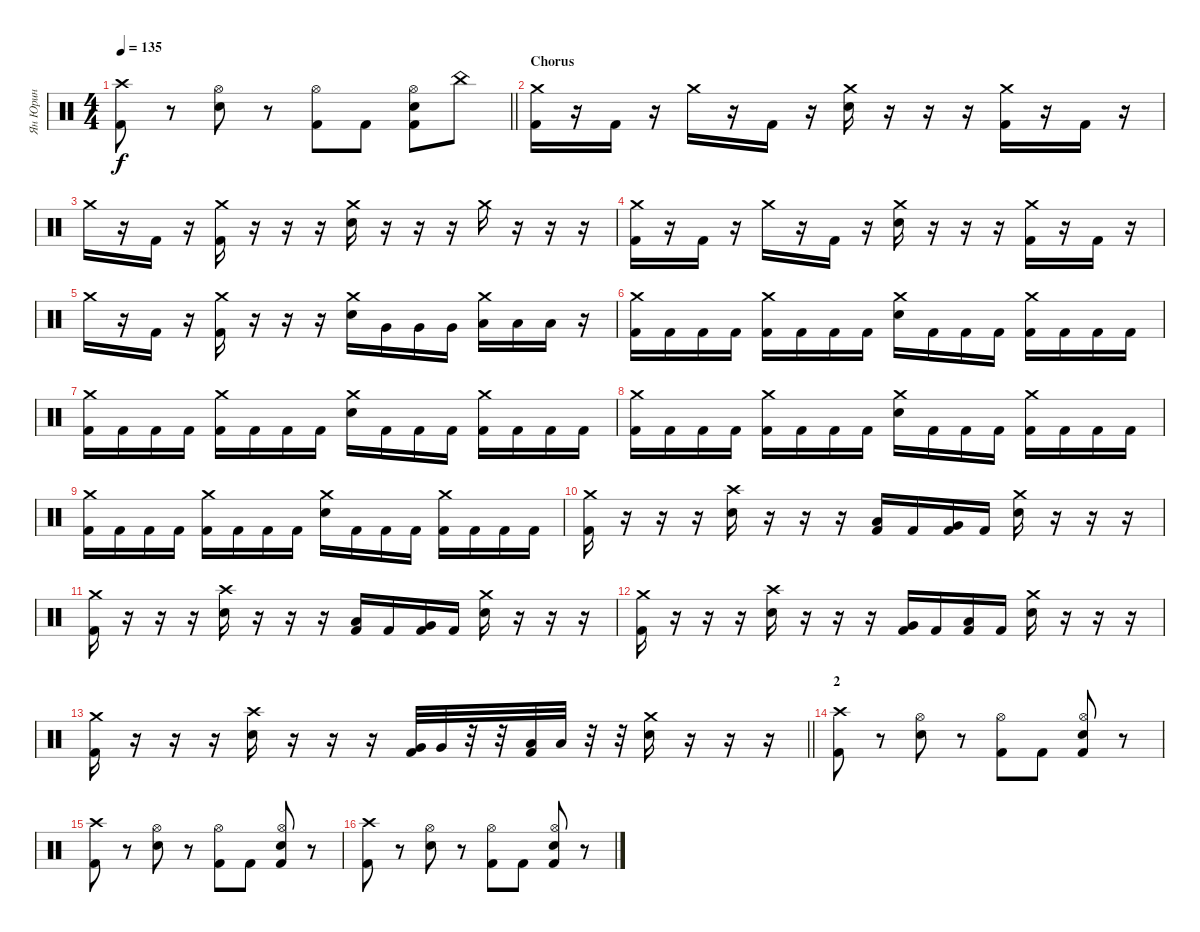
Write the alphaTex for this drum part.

\track ("Ян Юрин" "Ян Юрин") {instrument percussion}
\staff {score}
\articulation defaults
\ts (4 4)
\tempo 135
\clef neutral
\barLineRight lightlight
\ks c
("Crash high (hit)" "Kick (hit) 2").8{dy f} r.8 ("Hi-Hat (open)" "Electric Snare (hit)").8 r.8 ("Hi-Hat (open)" "Kick (hit) 2").8 "Kick (hit) 2".8 ("Hi-Hat (open)" "Electric Snare (hit)" "Kick (hit) 2").8 "China (hit)".8 |
\section ("" "Chorus")
("Crash medium (hit)" "Kick (hit) 2").16 r.16 "Kick (hit) 2".16 r.16 "Crash medium (hit)".16 r.16 "Kick (hit) 2".16 r.16 ("Crash medium (hit)" "Electric Snare (hit)").16 r.16 r.16 r.16 ("Crash medium (hit)" "Kick (hit) 2").16 r.16 "Kick (hit) 2".16 r.16 |
"Crash medium (hit)".16 r.16 "Kick (hit) 2".16 r.16 ("Crash medium (hit)" "Kick (hit) 2").16 r.16 r.16 r.16 ("Crash medium (hit)" "Electric Snare (hit)").16 r.16 r.16 r.16 "Crash medium (hit)".16 r.16 r.16 r.16 |
("Crash medium (hit)" "Kick (hit) 2").16 r.16 "Kick (hit) 2".16 r.16 "Crash medium (hit)".16 r.16 "Kick (hit) 2".16 r.16 ("Crash medium (hit)" "Electric Snare (hit)").16 r.16 r.16 r.16 ("Crash medium (hit)" "Kick (hit) 2").16 r.16 "Kick (hit) 2".16 r.16 |
"Crash medium (hit)".16 r.16 "Kick (hit) 2".16 r.16 ("Crash medium (hit)" "Kick (hit) 2").16 r.16 r.16 r.16 ("Crash medium (hit)" "Electric Snare (hit)").16 "Very Low Tom (hit)".16 "Very Low Tom (hit)".16 "Very Low Tom (hit)".16 ("Crash medium (hit)" "Low Floor Tom (hit)").16 "Low Floor Tom (hit)".16 "Low Floor Tom (hit)".16 r.16 |
("Crash medium (hit)" "Kick (hit) 2").16 "Kick (hit) 2".16 "Kick (hit) 2".16 "Kick (hit) 2".16 ("Crash medium (hit)" "Kick (hit) 2").16 "Kick (hit) 2".16 "Kick (hit) 2".16 "Kick (hit) 2".16 ("Crash medium (hit)" "Electric Snare (hit)").16 "Kick (hit) 2".16 "Kick (hit) 2".16 "Kick (hit) 2".16 ("Crash medium (hit)" "Kick (hit) 2").16 "Kick (hit) 2".16 "Kick (hit) 2".16 "Kick (hit) 2".16 |
("Crash medium (hit)" "Kick (hit) 2").16 "Kick (hit) 2".16 "Kick (hit) 2".16 "Kick (hit) 2".16 ("Crash medium (hit)" "Kick (hit) 2").16 "Kick (hit) 2".16 "Kick (hit) 2".16 "Kick (hit) 2".16 ("Crash medium (hit)" "Electric Snare (hit)").16 "Kick (hit) 2".16 "Kick (hit) 2".16 "Kick (hit) 2".16 ("Crash medium (hit)" "Kick (hit) 2").16 "Kick (hit) 2".16 "Kick (hit) 2".16 "Kick (hit) 2".16 |
("Crash medium (hit)" "Kick (hit) 2").16 "Kick (hit) 2".16 "Kick (hit) 2".16 "Kick (hit) 2".16 ("Crash medium (hit)" "Kick (hit) 2").16 "Kick (hit) 2".16 "Kick (hit) 2".16 "Kick (hit) 2".16 ("Crash medium (hit)" "Electric Snare (hit)").16 "Kick (hit) 2".16 "Kick (hit) 2".16 "Kick (hit) 2".16 ("Crash medium (hit)" "Kick (hit) 2").16 "Kick (hit) 2".16 "Kick (hit) 2".16 "Kick (hit) 2".16 |
("Crash medium (hit)" "Kick (hit) 2").16 "Kick (hit) 2".16 "Kick (hit) 2".16 "Kick (hit) 2".16 ("Crash medium (hit)" "Kick (hit) 2").16 "Kick (hit) 2".16 "Kick (hit) 2".16 "Kick (hit) 2".16 ("Crash medium (hit)" "Electric Snare (hit)").16 "Kick (hit) 2".16 "Kick (hit) 2".16 "Kick (hit) 2".16 ("Crash medium (hit)" "Kick (hit) 2").16 "Kick (hit) 2".16 "Kick (hit) 2".16 "Kick (hit) 2".16 |
("Crash medium (hit)" "Kick (hit) 2").16 r.16 r.16 r.16 ("Crash high (hit)" "Electric Snare (hit)").16 r.16 r.16 r.16 ("Low Tom (hit)" "Kick (hit) 2").16 "Kick (hit) 2".16 ("Very Low Tom (hit)" "Kick (hit) 2").16 "Kick (hit) 2".16 ("Crash medium (hit)" "Electric Snare (hit)").16 r.16 r.16 r.16 |
("Crash medium (hit)" "Kick (hit) 2").16 r.16 r.16 r.16 ("Crash high (hit)" "Electric Snare (hit)").16 r.16 r.16 r.16 ("Low Tom (hit)" "Kick (hit) 2").16 "Kick (hit) 2".16 ("Very Low Tom (hit)" "Kick (hit) 2").16 "Kick (hit) 2".16 ("Crash medium (hit)" "Electric Snare (hit)").16 r.16 r.16 r.16 |
("Crash medium (hit)" "Kick (hit) 2").16 r.16 r.16 r.16 ("Crash high (hit)" "Electric Snare (hit)").16 r.16 r.16 r.16 ("Very Low Tom (hit)" "Kick (hit) 2").16 "Kick (hit) 2".16 ("Low Floor Tom (hit)" "Kick (hit) 2").16 "Kick (hit) 2".16 ("Crash medium (hit)" "Electric Snare (hit)").16 r.16 r.16 r.16 |
\barLineRight lightlight
("Crash medium (hit)" "Kick (hit) 2").16 r.16 r.16 r.16 ("Crash high (hit)" "Electric Snare (hit)").16 r.16 r.16 r.16 ("Very Low Tom (hit)" "Kick (hit) 2").32 "Very Low Tom (hit)".32 r.32 r.32 ("Low Floor Tom (hit)" "Kick (hit) 2").32 "Low Floor Tom (hit)".32 r.32 r.32 ("Crash medium (hit)" "Electric Snare (hit)").16 r.16 r.16 r.16 |
\section ("" "2")
("Crash high (hit)" "Kick (hit) 2").8 r.8 ("Hi-Hat (open)" "Electric Snare (hit)").8 r.8 ("Hi-Hat (open)" "Kick (hit) 2").8 "Kick (hit) 2".8 ("Hi-Hat (open)" "Electric Snare (hit)" "Kick (hit) 2").8 r.8 |
("Crash high (hit)" "Kick (hit) 2").8 r.8 ("Hi-Hat (open)" "Electric Snare (hit)").8 r.8 ("Hi-Hat (open)" "Kick (hit) 2").8 "Kick (hit) 2".8 ("Hi-Hat (open)" "Electric Snare (hit)" "Kick (hit) 2").8 r.8 |
("Crash high (hit)" "Kick (hit) 2").8 r.8 ("Hi-Hat (open)" "Electric Snare (hit)").8 r.8 ("Hi-Hat (open)" "Kick (hit) 2").8 "Kick (hit) 2".8 ("Hi-Hat (open)" "Electric Snare (hit)" "Kick (hit) 2").8 r.8
